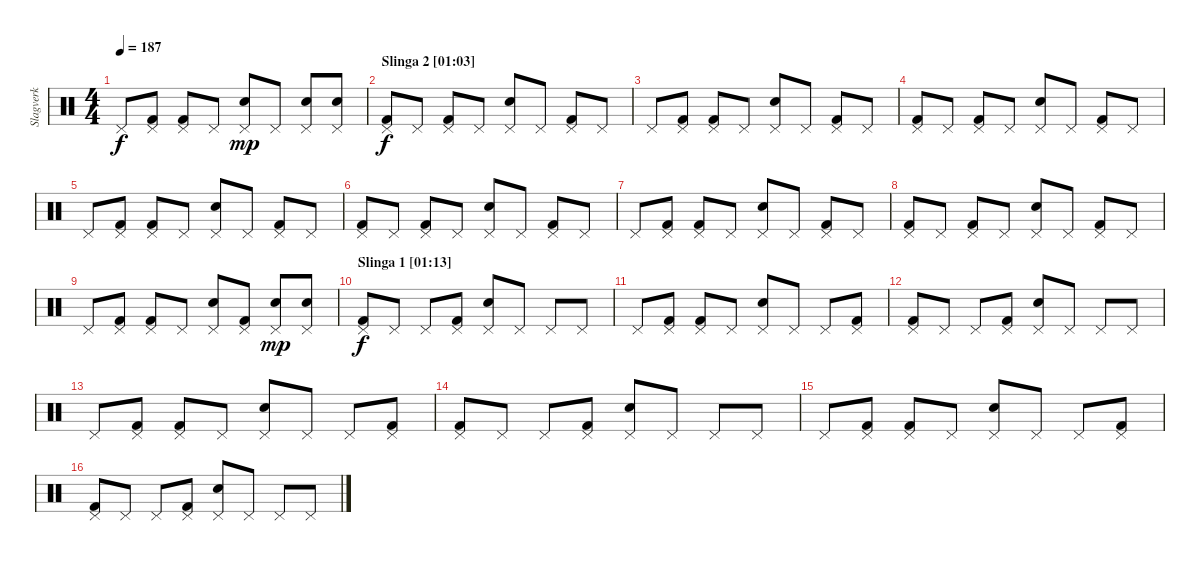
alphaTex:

\track ("Slagverk" "Slagverk") {instrument percussion}
\staff {score}
\articulation defaults
\ts (4 4)
\tempo 187
\clef neutral
\ks c "Pedal Hi-Hat (hit)".8{dy f}
("Pedal Hi-Hat (hit)" "Kick (hit) 2").8 ("Pedal Hi-Hat (hit)" "Kick (hit) 2").8 "Pedal Hi-Hat (hit)".8 ("Pedal Hi-Hat (hit)" "Electric Snare (hit)").8{dy mp} "Pedal Hi-Hat (hit)".8 ("Pedal Hi-Hat (hit)" "Electric Snare (hit)").8 ("Pedal Hi-Hat (hit)" "Electric Snare (hit)").8 |
\section ("" "Slinga 2 [01:03]")
("Pedal Hi-Hat (hit)" "Kick (hit) 2").8{dy f} "Pedal Hi-Hat (hit)".8 ("Pedal Hi-Hat (hit)" "Kick (hit) 2").8 "Pedal Hi-Hat (hit)".8 ("Pedal Hi-Hat (hit)" "Electric Snare (hit)").8 "Pedal Hi-Hat (hit)".8 ("Pedal Hi-Hat (hit)" "Kick (hit) 2").8 "Pedal Hi-Hat (hit)".8 |
"Pedal Hi-Hat (hit)".8 ("Pedal Hi-Hat (hit)" "Kick (hit) 2").8 ("Pedal Hi-Hat (hit)" "Kick (hit) 2").8 "Pedal Hi-Hat (hit)".8 ("Pedal Hi-Hat (hit)" "Electric Snare (hit)").8 "Pedal Hi-Hat (hit)".8 ("Pedal Hi-Hat (hit)" "Kick (hit) 2").8 "Pedal Hi-Hat (hit)".8 |
("Pedal Hi-Hat (hit)" "Kick (hit) 2").8 "Pedal Hi-Hat (hit)".8 ("Pedal Hi-Hat (hit)" "Kick (hit) 2").8 "Pedal Hi-Hat (hit)".8 ("Pedal Hi-Hat (hit)" "Electric Snare (hit)").8 "Pedal Hi-Hat (hit)".8 ("Pedal Hi-Hat (hit)" "Kick (hit) 2").8 "Pedal Hi-Hat (hit)".8 |
"Pedal Hi-Hat (hit)".8 ("Pedal Hi-Hat (hit)" "Kick (hit) 2").8 ("Pedal Hi-Hat (hit)" "Kick (hit) 2").8 "Pedal Hi-Hat (hit)".8 ("Pedal Hi-Hat (hit)" "Electric Snare (hit)").8 "Pedal Hi-Hat (hit)".8 ("Pedal Hi-Hat (hit)" "Kick (hit) 2").8 "Pedal Hi-Hat (hit)".8 |
("Pedal Hi-Hat (hit)" "Kick (hit) 2").8 "Pedal Hi-Hat (hit)".8 ("Pedal Hi-Hat (hit)" "Kick (hit) 2").8 "Pedal Hi-Hat (hit)".8 ("Pedal Hi-Hat (hit)" "Electric Snare (hit)").8 "Pedal Hi-Hat (hit)".8 ("Pedal Hi-Hat (hit)" "Kick (hit) 2").8 "Pedal Hi-Hat (hit)".8 |
"Pedal Hi-Hat (hit)".8 ("Pedal Hi-Hat (hit)" "Kick (hit) 2").8 ("Pedal Hi-Hat (hit)" "Kick (hit) 2").8 "Pedal Hi-Hat (hit)".8 ("Pedal Hi-Hat (hit)" "Electric Snare (hit)").8 "Pedal Hi-Hat (hit)".8 ("Pedal Hi-Hat (hit)" "Kick (hit) 2").8 "Pedal Hi-Hat (hit)".8 |
("Pedal Hi-Hat (hit)" "Kick (hit) 2").8 "Pedal Hi-Hat (hit)".8 ("Pedal Hi-Hat (hit)" "Kick (hit) 2").8 "Pedal Hi-Hat (hit)".8 ("Pedal Hi-Hat (hit)" "Electric Snare (hit)").8 "Pedal Hi-Hat (hit)".8 ("Pedal Hi-Hat (hit)" "Kick (hit) 2").8 "Pedal Hi-Hat (hit)".8 |
"Pedal Hi-Hat (hit)".8 ("Pedal Hi-Hat (hit)" "Kick (hit) 2").8 ("Pedal Hi-Hat (hit)" "Kick (hit) 2").8 "Pedal Hi-Hat (hit)".8 ("Pedal Hi-Hat (hit)" "Electric Snare (hit)").8 ("Pedal Hi-Hat (hit)" "Kick (hit) 2").8 ("Pedal Hi-Hat (hit)" "Electric Snare (hit)").8{dy mp} ("Pedal Hi-Hat (hit)" "Electric Snare (hit)").8 |
\section ("" "Slinga 1 [01:13]")
("Pedal Hi-Hat (hit)" "Kick (hit) 2").8{dy f} "Pedal Hi-Hat (hit)".8 "Pedal Hi-Hat (hit)".8 ("Pedal Hi-Hat (hit)" "Kick (hit) 2").8 ("Pedal Hi-Hat (hit)" "Electric Snare (hit)").8 "Pedal Hi-Hat (hit)".8 "Pedal Hi-Hat (hit)".8 "Pedal Hi-Hat (hit)".8 |
"Pedal Hi-Hat (hit)".8 ("Pedal Hi-Hat (hit)" "Kick (hit) 2").8 ("Pedal Hi-Hat (hit)" "Kick (hit) 2").8 "Pedal Hi-Hat (hit)".8 ("Pedal Hi-Hat (hit)" "Electric Snare (hit)").8 "Pedal Hi-Hat (hit)".8 "Pedal Hi-Hat (hit)".8 ("Pedal Hi-Hat (hit)" "Kick (hit) 2").8 |
("Pedal Hi-Hat (hit)" "Kick (hit) 2").8 "Pedal Hi-Hat (hit)".8 "Pedal Hi-Hat (hit)".8 ("Pedal Hi-Hat (hit)" "Kick (hit) 2").8 ("Pedal Hi-Hat (hit)" "Electric Snare (hit)").8 "Pedal Hi-Hat (hit)".8 "Pedal Hi-Hat (hit)".8 "Pedal Hi-Hat (hit)".8 |
"Pedal Hi-Hat (hit)".8 ("Pedal Hi-Hat (hit)" "Kick (hit) 2").8 ("Pedal Hi-Hat (hit)" "Kick (hit) 2").8 "Pedal Hi-Hat (hit)".8 ("Pedal Hi-Hat (hit)" "Electric Snare (hit)").8 "Pedal Hi-Hat (hit)".8 "Pedal Hi-Hat (hit)".8 ("Pedal Hi-Hat (hit)" "Kick (hit) 2").8 |
("Pedal Hi-Hat (hit)" "Kick (hit) 2").8 "Pedal Hi-Hat (hit)".8 "Pedal Hi-Hat (hit)".8 ("Pedal Hi-Hat (hit)" "Kick (hit) 2").8 ("Pedal Hi-Hat (hit)" "Electric Snare (hit)").8 "Pedal Hi-Hat (hit)".8 "Pedal Hi-Hat (hit)".8 "Pedal Hi-Hat (hit)".8 |
"Pedal Hi-Hat (hit)".8 ("Pedal Hi-Hat (hit)" "Kick (hit) 2").8 ("Pedal Hi-Hat (hit)" "Kick (hit) 2").8 "Pedal Hi-Hat (hit)".8 ("Pedal Hi-Hat (hit)" "Electric Snare (hit)").8 "Pedal Hi-Hat (hit)".8 "Pedal Hi-Hat (hit)".8 ("Pedal Hi-Hat (hit)" "Kick (hit) 2").8 |
("Pedal Hi-Hat (hit)" "Kick (hit) 2").8 "Pedal Hi-Hat (hit)".8 "Pedal Hi-Hat (hit)".8 ("Pedal Hi-Hat (hit)" "Kick (hit) 2").8 ("Pedal Hi-Hat (hit)" "Electric Snare (hit)").8 "Pedal Hi-Hat (hit)".8 "Pedal Hi-Hat (hit)".8 "Pedal Hi-Hat (hit)".8
